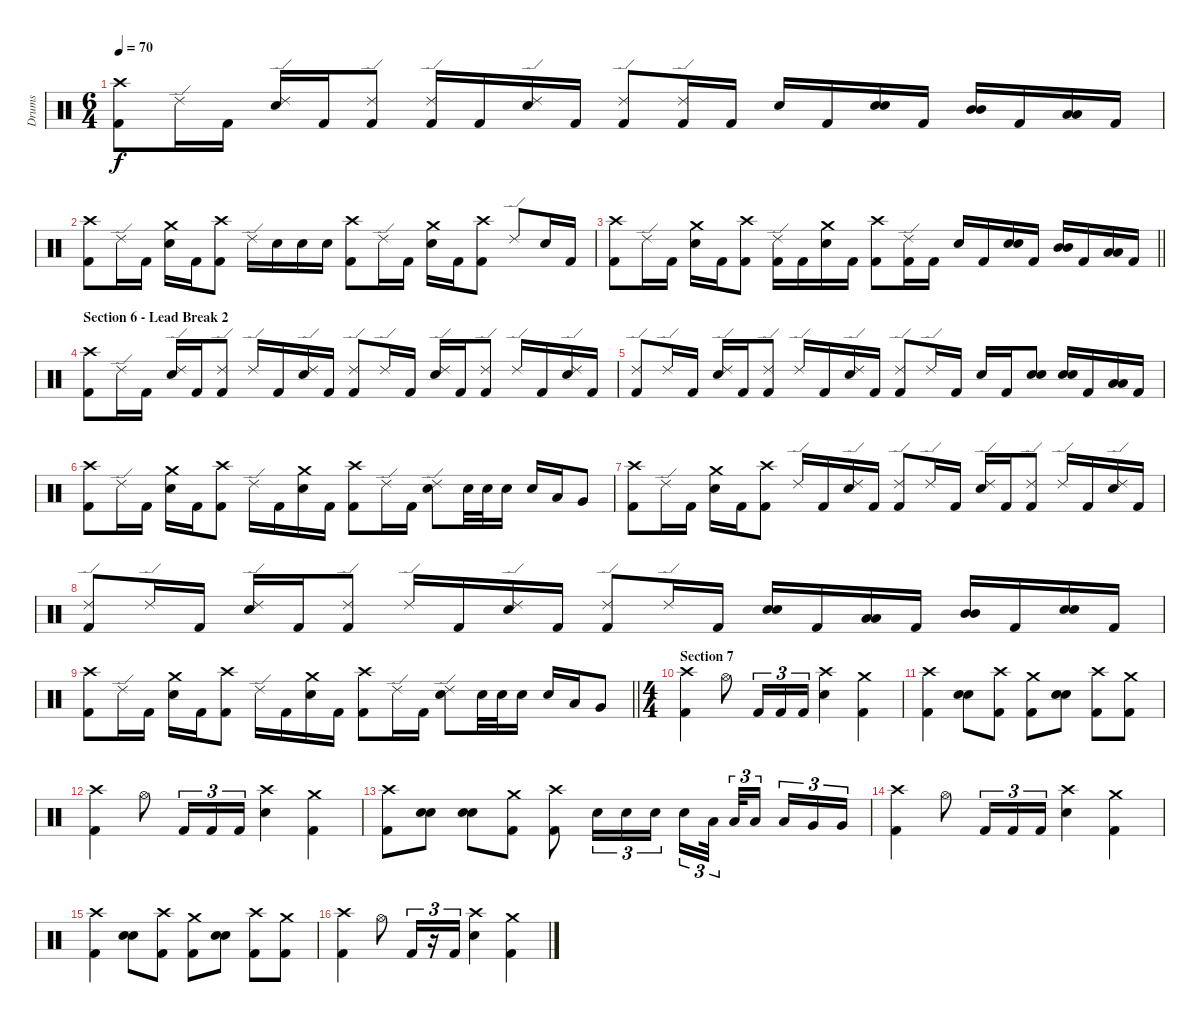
\track ("Drums" "Drums") {instrument percussion}
\staff {score}
\articulation defaults
\ts (6 4)
\tempo 70
\clef neutral
\ks c
("Crash high (hit)" "Kick (hit) 2").8{dy f} "Ride (edge) 2".16 "Kick (hit) 2".16 ("Ride (edge) 2" "Electric Snare (hit)").16 "Kick (hit) 2".16 ("Ride (edge) 2" "Kick (hit) 2").8 ("Ride (edge) 2" "Kick (hit) 2").16 "Kick (hit) 2".16 ("Ride (edge) 2" "Electric Snare (hit)").16 "Kick (hit) 2".16 ("Ride (edge) 2" "Kick (hit) 2").8 ("Ride (edge) 2" "Kick (hit) 2").16 "Kick (hit) 2".16 "Electric Snare (hit)".16 "Kick (hit) 2".16 ("Electric Snare (hit)" "Electric Snare (hit)").16{bu 60} "Kick (hit) 2".16 ("Mid Tom (hit)" "Mid Tom (hit)").16{bu 60} "Kick (hit) 2".16 ("Low Tom (hit)" "Low Tom (hit)").16{bu 60} "Kick (hit) 2".16 |
("Crash high (hit)" "Kick (hit) 2").8 "Ride (edge) 2".16 "Kick (hit) 2".16 ("Crash medium (hit)" "Electric Snare (hit)").16 "Kick (hit) 2".16 ("Crash high (hit)" "Kick (hit) 2").8 "Ride (edge) 2".16 "Electric Snare (hit)".16 "Electric Snare (hit)".16 "Electric Snare (hit)".16 ("Crash high (hit)" "Kick (hit) 2").8 "Ride (edge) 2".16 "Kick (hit) 2".16 ("Crash medium (hit)" "Electric Snare (hit)").16 "Kick (hit) 2".16 ("Crash high (hit)" "Kick (hit) 2").8 "Ride (edge) 2".8 "Electric Snare (hit)".16 "Kick (hit) 2".16 |
\barLineRight lightlight
("Crash high (hit)" "Kick (hit) 2").8 "Ride (edge) 2".16 "Kick (hit) 2".16 ("Crash medium (hit)" "Electric Snare (hit)").16 "Kick (hit) 2".16 ("Crash high (hit)" "Kick (hit) 2").8 ("Ride (edge) 2" "Kick (hit) 2").16 "Kick (hit) 2".16 ("Crash medium (hit)" "Electric Snare (hit)").16 "Kick (hit) 2".16 ("Crash high (hit)" "Kick (hit) 2").8 ("Ride (edge) 2" "Kick (hit) 2").16 "Kick (hit) 2".16 "Electric Snare (hit)".16 "Kick (hit) 2".16 ("Electric Snare (hit)" "Electric Snare (hit)").16{bu 60} "Kick (hit) 2".16 ("Mid Tom (hit)" "Mid Tom (hit)").16{bu 60} "Kick (hit) 2".16 ("Low Tom (hit)" "Low Tom (hit)").16{bu 60} "Kick (hit) 2".16 |
\section ("" "Section 6 - Lead Break 2")
("Crash high (hit)" "Kick (hit) 2").8 "Ride (edge) 2".16 "Kick (hit) 2".16 ("Ride (edge) 2" "Electric Snare (hit)").16 "Kick (hit) 2".16 ("Ride (edge) 2" "Kick (hit) 2").8 "Ride (edge) 2".16 "Kick (hit) 2".16 ("Ride (edge) 2" "Electric Snare (hit)").16 "Kick (hit) 2".16 ("Ride (edge) 2" "Kick (hit) 2").8 "Ride (edge) 2".16 "Kick (hit) 2".16 ("Ride (edge) 2" "Electric Snare (hit)").16 "Kick (hit) 2".16 ("Ride (edge) 2" "Kick (hit) 2").8 "Ride (edge) 2".16 "Kick (hit) 2".16 ("Ride (edge) 2" "Electric Snare (hit)").16 "Kick (hit) 2".16 |
("Ride (edge) 2" "Kick (hit) 2").8 "Ride (edge) 2".16 "Kick (hit) 2".16 ("Ride (edge) 2" "Electric Snare (hit)").16 "Kick (hit) 2".16 ("Ride (edge) 2" "Kick (hit) 2").8 "Ride (edge) 2".16 "Kick (hit) 2".16 ("Ride (edge) 2" "Electric Snare (hit)").16 "Kick (hit) 2".16 ("Ride (edge) 2" "Kick (hit) 2").8 "Ride (edge) 2".16 "Kick (hit) 2".16 "Electric Snare (hit)".16 "Kick (hit) 2".16 ("Electric Snare (hit)" "Electric Snare (hit)").8{bu 60} ("Electric Snare (hit)" "Electric Snare (hit)").16{bu 60} "Kick (hit) 2".16 ("Low Tom (hit)" "Low Tom (hit)").16{bu 60} "Kick (hit) 2".16 |
("Crash high (hit)" "Kick (hit) 2").8 "Ride (edge) 2".16 "Kick (hit) 2".16 ("Crash medium (hit)" "Electric Snare (hit)").16 "Kick (hit) 2".16 ("Crash high (hit)" "Kick (hit) 2").8 "Ride (edge) 2".16 "Kick (hit) 2".16 ("Crash medium (hit)" "Electric Snare (hit)").16 "Kick (hit) 2".16 ("Crash high (hit)" "Kick (hit) 2").8 "Ride (edge) 2".16 "Kick (hit) 2".16 ("Ride (edge) 2" "Electric Snare (hit)").8 "Electric Snare (hit)".32 "Electric Snare (hit)".32 "Electric Snare (hit)".16 "Electric Snare (hit)".16 "Low Tom (hit)".16 "Very Low Tom (hit)".8 |
("Crash high (hit)" "Kick (hit) 2").8 "Ride (edge) 2".16 "Kick (hit) 2".16 ("Crash medium (hit)" "Electric Snare (hit)").16 "Kick (hit) 2".16 ("Crash high (hit)" "Kick (hit) 2").8 "Ride (edge) 2".16 "Kick (hit) 2".16 ("Ride (edge) 2" "Electric Snare (hit)").16 "Kick (hit) 2".16 ("Ride (edge) 2" "Kick (hit) 2").8 "Ride (edge) 2".16 "Kick (hit) 2".16 ("Ride (edge) 2" "Electric Snare (hit)").16 "Kick (hit) 2".16 ("Ride (edge) 2" "Kick (hit) 2").8 "Ride (edge) 2".16 "Kick (hit) 2".16 ("Ride (edge) 2" "Electric Snare (hit)").16 "Kick (hit) 2".16 |
("Ride (edge) 2" "Kick (hit) 2").8 "Ride (edge) 2".16 "Kick (hit) 2".16 ("Ride (edge) 2" "Electric Snare (hit)").16 "Kick (hit) 2".16 ("Ride (edge) 2" "Kick (hit) 2").8 "Ride (edge) 2".16 "Kick (hit) 2".16 ("Ride (edge) 2" "Electric Snare (hit)").16 "Kick (hit) 2".16 ("Ride (edge) 2" "Kick (hit) 2").8 "Ride (edge) 2".16 "Kick (hit) 2".16 ("Electric Snare (hit)" "Electric Snare (hit)").16{bu 60} "Kick (hit) 2".16 ("Low Tom (hit)" "Low Tom (hit)").16{bu 60} "Kick (hit) 2".16 ("Mid Tom (hit)" "Mid Tom (hit)").16{bu 60} "Kick (hit) 2".16 ("Electric Snare (hit)" "Electric Snare (hit)").16{bu 60} "Kick (hit) 2".16 |
\barLineRight lightlight
("Crash high (hit)" "Kick (hit) 2").8 "Ride (edge) 2".16 "Kick (hit) 2".16 ("Crash medium (hit)" "Electric Snare (hit)").16 "Kick (hit) 2".16 ("Crash high (hit)" "Kick (hit) 2").8 "Ride (edge) 2".16 "Kick (hit) 2".16 ("Crash medium (hit)" "Electric Snare (hit)").16 "Kick (hit) 2".16 ("Crash high (hit)" "Kick (hit) 2").8 "Ride (edge) 2".16 "Kick (hit) 2".16 ("Ride (edge) 2" "Electric Snare (hit)").8 "Electric Snare (hit)".32 "Electric Snare (hit)".32 "Electric Snare (hit)".16 "Electric Snare (hit)".16 "Low Tom (hit)".16 "Very Low Tom (hit)".8 |
\ts (4 4)
\section ("" "Section 7")
("Crash high (hit)" "Kick (hit) 2").4 "Hi-Hat (open)".8 "Kick (hit) 2".16{tu (3 2)} "Kick (hit) 2".16{tu (3 2)} "Kick (hit) 2".16{tu (3 2)} ("Crash high (hit)" "Electric Snare (hit)").4 ("Crash medium (hit)" "Kick (hit) 2").4 |
("Crash high (hit)" "Kick (hit) 2").4 ("Electric Snare (hit)" "Electric Snare (hit)").8{bu 60} ("Crash high (hit)" "Kick (hit) 2").8 ("Crash medium (hit)" "Kick (hit) 2").8 ("Electric Snare (hit)" "Electric Snare (hit)").8{bu 60} ("Crash high (hit)" "Kick (hit) 2").8 ("Crash medium (hit)" "Kick (hit) 2").8 |
("Crash high (hit)" "Kick (hit) 2").4 "Hi-Hat (open)".8 "Kick (hit) 2".16{tu (3 2)} "Kick (hit) 2".16{tu (3 2)} "Kick (hit) 2".16{tu (3 2)} ("Crash high (hit)" "Electric Snare (hit)").4 ("Crash medium (hit)" "Kick (hit) 2").4 |
("Crash high (hit)" "Kick (hit) 2").8 ("Electric Snare (hit)" "Electric Snare (hit)").8{bu 60} ("Electric Snare (hit)" "Electric Snare (hit)").8{bu 60} ("Crash medium (hit)" "Kick (hit) 2").8 ("Crash high (hit)" "Kick (hit) 2").8 "Electric Snare (hit)".16{tu (3 2)} "Electric Snare (hit)".16{tu (3 2)} "Electric Snare (hit)".16{tu (3 2)} "Electric Snare (hit)".16{tu (3 2)} "Low Tom (hit)".32{tu (3 2)} "Low Tom (hit)".32{tu (3 2)} "Low Tom (hit)".16{tu (3 2)} "Low Tom (hit)".16{tu (3 2)} "Very Low Tom (hit)".16{tu (3 2)} "Very Low Tom (hit)".16{tu (3 2)} |
("Crash high (hit)" "Kick (hit) 2").4 "Hi-Hat (open)".8 "Kick (hit) 2".16{tu (3 2)} "Kick (hit) 2".16{tu (3 2)} "Kick (hit) 2".16{tu (3 2)} ("Crash high (hit)" "Electric Snare (hit)").4 ("Crash medium (hit)" "Kick (hit) 2").4 |
("Crash high (hit)" "Kick (hit) 2").4 ("Electric Snare (hit)" "Electric Snare (hit)").8{bu 60} ("Crash high (hit)" "Kick (hit) 2").8 ("Crash medium (hit)" "Kick (hit) 2").8 ("Electric Snare (hit)" "Electric Snare (hit)").8{bu 60} ("Crash high (hit)" "Kick (hit) 2").8 ("Crash medium (hit)" "Kick (hit) 2").8 |
("Crash high (hit)" "Kick (hit) 2").4 "Hi-Hat (open)".8 "Kick (hit) 2".16{tu (3 2)} r.16{tu (3 2)} "Kick (hit) 2".16{tu (3 2)} ("Crash high (hit)" "Electric Snare (hit)").4 ("Crash medium (hit)" "Kick (hit) 2").4
